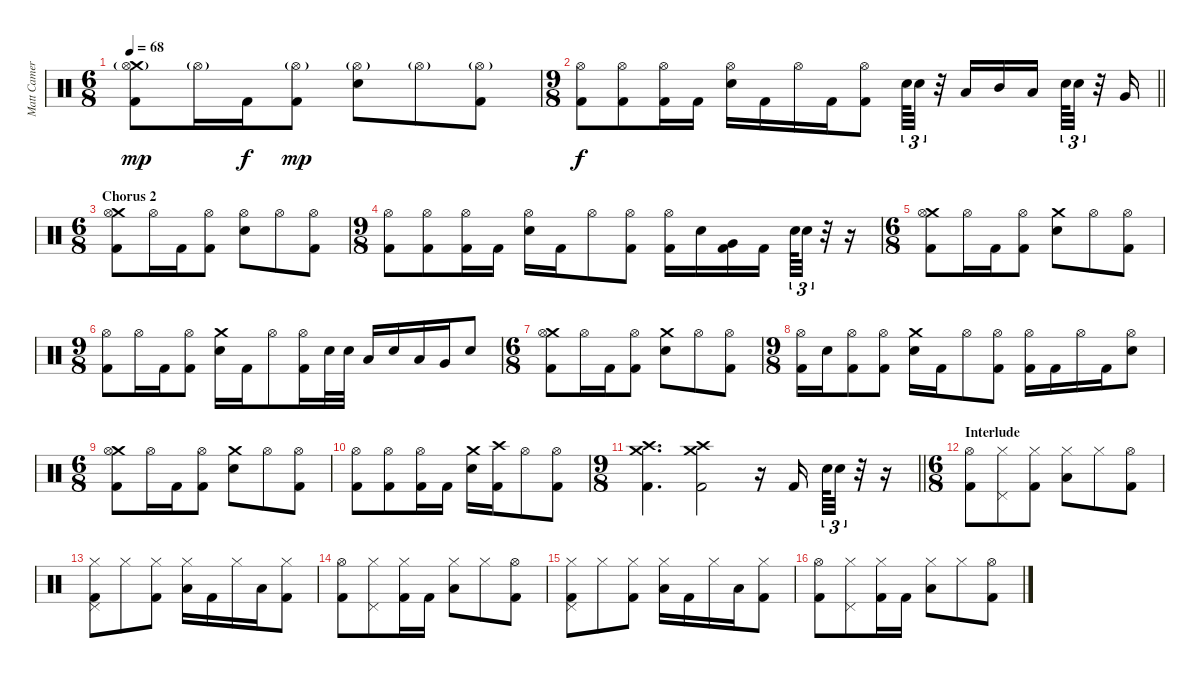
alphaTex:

\track ("Matt Cameron" "Matt Camer") {instrument percussion}
\staff {score}
\articulation defaults
\ts (6 8)
\tempo 68
\clef neutral
\ks c
("Crash medium (hit)" "Hi-Hat (open)"{g} "Kick (hit) 2").8{dy mp} "Hi-Hat (open)"{g}.16 "Kick (hit) 2".16{dy f} ("Hi-Hat (open)"{g} "Kick (hit) 2").8{dy mp} ("Hi-Hat (open)"{g} "Electric Snare (hit)").8 "Hi-Hat (open)"{g}.8 ("Hi-Hat (open)"{g} "Kick (hit) 2").8 |
\ts (9 8)
\barLineRight lightlight
("Hi-Hat (open)" "Kick (hit) 2").8{dy f} ("Hi-Hat (open)" "Kick (hit) 2").8 ("Hi-Hat (open)" "Kick (hit) 2").16 "Kick (hit) 2".16 ("Hi-Hat (open)" "Electric Snare (hit)").16 "Kick (hit) 2".16 "Hi-Hat (open)".16 "Kick (hit) 2".16 ("Hi-Hat (open)" "Kick (hit) 2").8 "Electric Snare (hit)".64{tu (3 2)} "Electric Snare (hit)".32{tu (3 2)} r.32 "Low Tom (hit)".16 "Mid Tom (hit)".16 "Low Tom (hit)".16{beam splitsecondary} "Electric Snare (hit)".64{tu (3 2)} "Electric Snare (hit)".32{tu (3 2)} r.32 "Very Low Tom (hit)".16 |
\ts (6 8)
\section ("" "Chorus 2")
("Crash medium (hit)" "Hi-Hat (open)" "Kick (hit) 2").8 "Hi-Hat (open)".16 "Kick (hit) 2".16 ("Hi-Hat (open)" "Kick (hit) 2").8 ("Hi-Hat (open)" "Electric Snare (hit)").8 "Hi-Hat (open)".8 ("Hi-Hat (open)" "Kick (hit) 2").8 |
\ts (9 8)
("Hi-Hat (open)" "Kick (hit) 2").8 ("Hi-Hat (open)" "Kick (hit) 2").8 ("Hi-Hat (open)" "Kick (hit) 2").16 "Kick (hit) 2".16 ("Hi-Hat (open)" "Electric Snare (hit)").16 "Kick (hit) 2".16 "Hi-Hat (open)".8 ("Hi-Hat (open)" "Kick (hit) 2").8 ("Hi-Hat (open)" "Kick (hit) 2").16 "Electric Snare (hit)".16 ("Very Low Tom (hit)" "Kick (hit) 2").16 "Kick (hit) 2".16{beam splitsecondary} "Electric Snare (hit)".64{tu (3 2)} "Electric Snare (hit)".32{tu (3 2)} r.32 r.16 |
\ts (6 8)
("Crash medium (hit)" "Hi-Hat (open)" "Kick (hit) 2").8 "Hi-Hat (open)".16 "Kick (hit) 2".16 ("Hi-Hat (open)" "Kick (hit) 2").8 ("Crash medium (hit)" "Electric Snare (hit)").8 "Hi-Hat (open)".8 ("Hi-Hat (open)" "Kick (hit) 2").8 |
\ts (9 8)
("Hi-Hat (open)" "Kick (hit) 2").8 "Hi-Hat (open)".16 "Kick (hit) 2".16 ("Hi-Hat (open)" "Kick (hit) 2").8 ("Crash medium (hit)" "Electric Snare (hit)").16 "Kick (hit) 2".16 "Hi-Hat (open)".8 ("Hi-Hat (open)" "Kick (hit) 2").16 "Electric Snare (hit)".32 "Electric Snare (hit)".32 "Low Tom (hit)".16 "Electric Snare (hit)".16 "Low Tom (hit)".16 "Very Low Tom (hit)".16 "Electric Snare (hit)".8 |
\ts (6 8)
("Crash medium (hit)" "Hi-Hat (open)" "Kick (hit) 2").8 "Hi-Hat (open)".16 "Kick (hit) 2".16 ("Hi-Hat (open)" "Kick (hit) 2").8 ("Crash medium (hit)" "Electric Snare (hit)").8 "Hi-Hat (open)".8 ("Hi-Hat (open)" "Kick (hit) 2").8 |
\ts (9 8)
("Hi-Hat (open)" "Kick (hit) 2").16 "Electric Snare (hit)".16 ("Hi-Hat (open)" "Kick (hit) 2").8 ("Hi-Hat (open)" "Kick (hit) 2").8 ("Crash medium (hit)" "Electric Snare (hit)").16 "Kick (hit) 2".16 "Hi-Hat (open)".8 ("Hi-Hat (open)" "Kick (hit) 2").8 ("Hi-Hat (open)" "Kick (hit) 2").16 "Kick (hit) 2".16 "Hi-Hat (open)".16 "Kick (hit) 2".16 ("Hi-Hat (open)" "Electric Snare (hit)").8 |
\ts (6 8)
("Crash medium (hit)" "Hi-Hat (open)" "Kick (hit) 2").8 "Hi-Hat (open)".16 "Kick (hit) 2".16 ("Hi-Hat (open)" "Kick (hit) 2").8 ("Crash medium (hit)" "Electric Snare (hit)").8 "Hi-Hat (open)".8 ("Hi-Hat (open)" "Kick (hit) 2").8 |
("Hi-Hat (open)" "Kick (hit) 2").8 ("Hi-Hat (open)" "Kick (hit) 2").8 ("Hi-Hat (open)" "Kick (hit) 2").16 "Kick (hit) 2".16 ("Crash medium (hit)" "Electric Snare (hit)").16 ("Crash high (hit)" "Kick (hit) 2").16 "Hi-Hat (open)".8 ("Hi-Hat (open)" "Kick (hit) 2").8 |
\ts (9 8)
\barLineRight lightlight
("Crash high (hit)" "Crash medium (hit)" "Kick (hit) 2").4{d} ("Crash high (hit)" "Crash medium (hit)" "Kick (hit) 2").2 r.16 "Kick (hit) 2".16{beam splitsecondary} "Electric Snare (hit)".64{tu (3 2)} "Electric Snare (hit)".32{tu (3 2)} r.32 r.16 |
\ts (6 8)
\section ("" "Interlude")
("Hi-Hat (open)" "Kick (hit) 2").8 ("Pedal Hi-Hat (hit)" "Hi-Hat (closed)").8 ("Hi-Hat (closed)" "Kick (hit) 2").8 ("Hi-Hat (closed)" "Low Tom (hit)").8 "Hi-Hat (closed)".8 ("Hi-Hat (open)" "Kick (hit) 2").8 |
("Pedal Hi-Hat (hit)" "Hi-Hat (closed)" "Kick (hit) 2").8 "Hi-Hat (closed)".8 ("Hi-Hat (closed)" "Kick (hit) 2").8 ("Hi-Hat (closed)" "Low Tom (hit)").16 "Kick (hit) 2".16 "Hi-Hat (closed)".16 "Low Tom (hit)".16 ("Hi-Hat (closed)" "Kick (hit) 2").8 |
("Hi-Hat (open)" "Kick (hit) 2").8 ("Pedal Hi-Hat (hit)" "Hi-Hat (closed)").8 ("Hi-Hat (closed)" "Kick (hit) 2").16 "Kick (hit) 2".16 ("Hi-Hat (closed)" "Low Tom (hit)").8 "Hi-Hat (closed)".8 ("Hi-Hat (open)" "Kick (hit) 2").8 |
("Pedal Hi-Hat (hit)" "Hi-Hat (closed)" "Kick (hit) 2").8 "Hi-Hat (closed)".8 ("Hi-Hat (closed)" "Kick (hit) 2").8 ("Hi-Hat (closed)" "Low Tom (hit)").16 "Kick (hit) 2".16 "Hi-Hat (closed)".16 "Low Tom (hit)".16 ("Hi-Hat (closed)" "Kick (hit) 2").8 |
("Hi-Hat (open)" "Kick (hit) 2").8 ("Pedal Hi-Hat (hit)" "Hi-Hat (closed)").8 ("Hi-Hat (closed)" "Kick (hit) 2").16 "Kick (hit) 2".16 ("Hi-Hat (closed)" "Low Tom (hit)").8 "Hi-Hat (closed)".8 ("Hi-Hat (open)" "Kick (hit) 2").8
